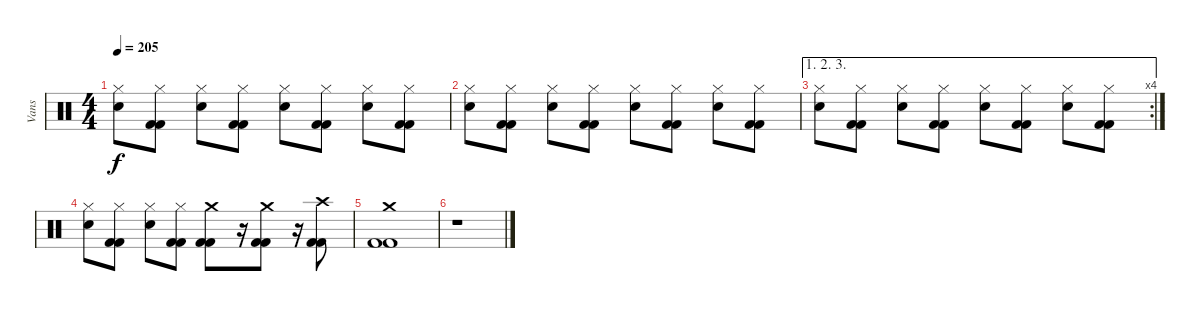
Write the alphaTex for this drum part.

\track ("Vans" "Vans") {instrument percussion}
\staff {score}
\articulation defaults
\ts (4 4)
\tempo 205
\clef neutral
\ks c
("Hi-Hat (closed)" "Snare (hit) 2").8{dy f} ("Hi-Hat (closed)" "Kick (hit) 2" "Kick (hit) 2").8 ("Hi-Hat (closed)" "Snare (hit) 2").8 ("Hi-Hat (closed)" "Kick (hit) 2" "Kick (hit) 2").8 ("Hi-Hat (closed)" "Snare (hit) 2").8 ("Hi-Hat (closed)" "Kick (hit) 2" "Kick (hit) 2").8 ("Hi-Hat (closed)" "Snare (hit) 2").8 ("Hi-Hat (closed)" "Kick (hit) 2" "Kick (hit) 2").8 |
("Hi-Hat (closed)" "Snare (hit) 2").8 ("Hi-Hat (closed)" "Kick (hit) 2" "Kick (hit) 2").8 ("Hi-Hat (closed)" "Snare (hit) 2").8 ("Hi-Hat (closed)" "Kick (hit) 2" "Kick (hit) 2").8 ("Hi-Hat (closed)" "Snare (hit) 2").8 ("Hi-Hat (closed)" "Kick (hit) 2" "Kick (hit) 2").8 ("Hi-Hat (closed)" "Snare (hit) 2").8 ("Hi-Hat (closed)" "Kick (hit) 2" "Kick (hit) 2").8 |
\ae (1 2 3)
\rc 4
("Hi-Hat (closed)" "Snare (hit) 2").8 ("Hi-Hat (closed)" "Kick (hit) 2" "Kick (hit) 2").8 ("Hi-Hat (closed)" "Snare (hit) 2").8 ("Hi-Hat (closed)" "Kick (hit) 2" "Kick (hit) 2").8 ("Hi-Hat (closed)" "Snare (hit) 2").8 ("Hi-Hat (closed)" "Kick (hit) 2" "Kick (hit) 2").8 ("Hi-Hat (closed)" "Snare (hit) 2").8 ("Hi-Hat (closed)" "Kick (hit) 2" "Kick (hit) 2").8 |
("Hi-Hat (closed)" "Snare (hit) 2").8 ("Hi-Hat (closed)" "Kick (hit) 2" "Kick (hit) 2").8 ("Hi-Hat (closed)" "Snare (hit) 2").8 ("Hi-Hat (closed)" "Kick (hit) 2" "Kick (hit) 2").8 ("Crash medium (hit)" "Kick (hit) 2" "Kick (hit) 2").8 r.16 ("Crash medium (hit)" "Kick (hit) 2" "Kick (hit) 2").8 r.16 ("Crash high (hit)" "Kick (hit) 2" "Kick (hit) 2").8 |
("Crash medium (hit)" "Kick (hit) 2" "Kick (hit) 2").1 |
r.1
